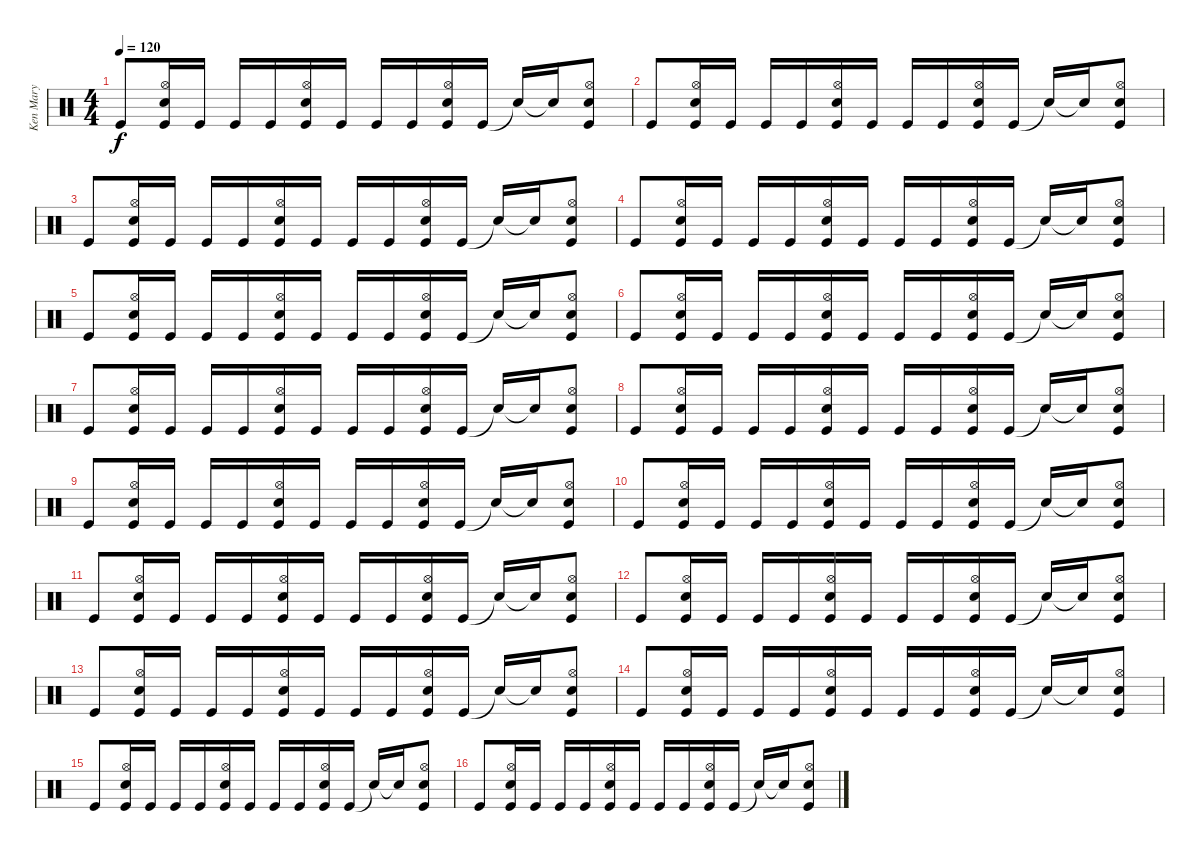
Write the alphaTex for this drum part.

\track ("Ken Mary" "Ken Mary") {instrument percussion}
\staff {score}
\articulation defaults
\ts (4 4)
\tempo 120
\clef neutral
\ks c "Kick (hit)".8{dy f}
("Hi-Hat (open)" "Snare (hit) 2" "Kick (hit)").16 "Kick (hit)".16 "Kick (hit)".16 "Kick (hit)".16 ("Hi-Hat (open)" "Snare (hit) 2" "Kick (hit)").16 "Kick (hit)".16 "Kick (hit)".16 "Kick (hit)".16 ("Hi-Hat (open)" "Snare (hit) 2" "Kick (hit)").16 "Kick (hit)".16 "Snare (hit)"{t}.16 "Snare (hit)"{t}.16 ("Snare (hit) 2" "Hi-Hat (open)" "Kick (hit)").8 |
"Kick (hit)".8 ("Hi-Hat (open)" "Snare (hit) 2" "Kick (hit)").16 "Kick (hit)".16 "Kick (hit)".16 "Kick (hit)".16 ("Hi-Hat (open)" "Snare (hit) 2" "Kick (hit)").16 "Kick (hit)".16 "Kick (hit)".16 "Kick (hit)".16 ("Hi-Hat (open)" "Snare (hit) 2" "Kick (hit)").16 "Kick (hit)".16 "Snare (hit)"{t}.16 "Snare (hit)"{t}.16 ("Snare (hit) 2" "Hi-Hat (open)" "Kick (hit)").8 |
"Kick (hit)".8 ("Hi-Hat (open)" "Snare (hit) 2" "Kick (hit)").16 "Kick (hit)".16 "Kick (hit)".16 "Kick (hit)".16 ("Hi-Hat (open)" "Snare (hit) 2" "Kick (hit)").16 "Kick (hit)".16 "Kick (hit)".16 "Kick (hit)".16 ("Hi-Hat (open)" "Snare (hit) 2" "Kick (hit)").16 "Kick (hit)".16 "Snare (hit)"{t}.16 "Snare (hit)"{t}.16 ("Snare (hit) 2" "Hi-Hat (open)" "Kick (hit)").8 |
"Kick (hit)".8 ("Hi-Hat (open)" "Snare (hit) 2" "Kick (hit)").16 "Kick (hit)".16 "Kick (hit)".16 "Kick (hit)".16 ("Hi-Hat (open)" "Snare (hit) 2" "Kick (hit)").16 "Kick (hit)".16 "Kick (hit)".16 "Kick (hit)".16 ("Hi-Hat (open)" "Snare (hit) 2" "Kick (hit)").16 "Kick (hit)".16 "Snare (hit)"{t}.16 "Snare (hit)"{t}.16 ("Snare (hit) 2" "Hi-Hat (open)" "Kick (hit)").8 |
"Kick (hit)".8 ("Hi-Hat (open)" "Snare (hit) 2" "Kick (hit)").16 "Kick (hit)".16 "Kick (hit)".16 "Kick (hit)".16 ("Hi-Hat (open)" "Snare (hit) 2" "Kick (hit)").16 "Kick (hit)".16 "Kick (hit)".16 "Kick (hit)".16 ("Hi-Hat (open)" "Snare (hit) 2" "Kick (hit)").16 "Kick (hit)".16 "Snare (hit)"{t}.16 "Snare (hit)"{t}.16 ("Snare (hit) 2" "Hi-Hat (open)" "Kick (hit)").8 |
"Kick (hit)".8 ("Hi-Hat (open)" "Snare (hit) 2" "Kick (hit)").16 "Kick (hit)".16 "Kick (hit)".16 "Kick (hit)".16 ("Hi-Hat (open)" "Snare (hit) 2" "Kick (hit)").16 "Kick (hit)".16 "Kick (hit)".16 "Kick (hit)".16 ("Hi-Hat (open)" "Snare (hit) 2" "Kick (hit)").16 "Kick (hit)".16 "Snare (hit)"{t}.16 "Snare (hit)"{t}.16 ("Snare (hit) 2" "Hi-Hat (open)" "Kick (hit)").8 |
"Kick (hit)".8 ("Hi-Hat (open)" "Snare (hit) 2" "Kick (hit)").16 "Kick (hit)".16 "Kick (hit)".16 "Kick (hit)".16 ("Hi-Hat (open)" "Snare (hit) 2" "Kick (hit)").16 "Kick (hit)".16 "Kick (hit)".16 "Kick (hit)".16 ("Hi-Hat (open)" "Snare (hit) 2" "Kick (hit)").16 "Kick (hit)".16 "Snare (hit)"{t}.16 "Snare (hit)"{t}.16 ("Snare (hit) 2" "Hi-Hat (open)" "Kick (hit)").8 |
"Kick (hit)".8 ("Hi-Hat (open)" "Snare (hit) 2" "Kick (hit)").16 "Kick (hit)".16 "Kick (hit)".16 "Kick (hit)".16 ("Hi-Hat (open)" "Snare (hit) 2" "Kick (hit)").16 "Kick (hit)".16 "Kick (hit)".16 "Kick (hit)".16 ("Hi-Hat (open)" "Snare (hit) 2" "Kick (hit)").16 "Kick (hit)".16 "Snare (hit)"{t}.16 "Snare (hit)"{t}.16 ("Snare (hit) 2" "Hi-Hat (open)" "Kick (hit)").8 |
"Kick (hit)".8 ("Hi-Hat (open)" "Snare (hit) 2" "Kick (hit)").16 "Kick (hit)".16 "Kick (hit)".16 "Kick (hit)".16 ("Hi-Hat (open)" "Snare (hit) 2" "Kick (hit)").16 "Kick (hit)".16 "Kick (hit)".16 "Kick (hit)".16 ("Hi-Hat (open)" "Snare (hit) 2" "Kick (hit)").16 "Kick (hit)".16 "Snare (hit)"{t}.16 "Snare (hit)"{t}.16 ("Snare (hit) 2" "Hi-Hat (open)" "Kick (hit)").8 |
"Kick (hit)".8 ("Hi-Hat (open)" "Snare (hit) 2" "Kick (hit)").16 "Kick (hit)".16 "Kick (hit)".16 "Kick (hit)".16 ("Hi-Hat (open)" "Snare (hit) 2" "Kick (hit)").16 "Kick (hit)".16 "Kick (hit)".16 "Kick (hit)".16 ("Hi-Hat (open)" "Snare (hit) 2" "Kick (hit)").16 "Kick (hit)".16 "Snare (hit)"{t}.16 "Snare (hit)"{t}.16 ("Snare (hit) 2" "Hi-Hat (open)" "Kick (hit)").8 |
"Kick (hit)".8 ("Hi-Hat (open)" "Snare (hit) 2" "Kick (hit)").16 "Kick (hit)".16 "Kick (hit)".16 "Kick (hit)".16 ("Hi-Hat (open)" "Snare (hit) 2" "Kick (hit)").16 "Kick (hit)".16 "Kick (hit)".16 "Kick (hit)".16 ("Hi-Hat (open)" "Snare (hit) 2" "Kick (hit)").16 "Kick (hit)".16 "Snare (hit)"{t}.16 "Snare (hit)"{t}.16 ("Snare (hit) 2" "Hi-Hat (open)" "Kick (hit)").8 |
"Kick (hit)".8 ("Hi-Hat (open)" "Snare (hit) 2" "Kick (hit)").16 "Kick (hit)".16 "Kick (hit)".16 "Kick (hit)".16 ("Hi-Hat (open)" "Snare (hit) 2" "Kick (hit)").16 "Kick (hit)".16 "Kick (hit)".16 "Kick (hit)".16 ("Hi-Hat (open)" "Snare (hit) 2" "Kick (hit)").16 "Kick (hit)".16 "Snare (hit)"{t}.16 "Snare (hit)"{t}.16 ("Snare (hit) 2" "Hi-Hat (open)" "Kick (hit)").8 |
"Kick (hit)".8 ("Hi-Hat (open)" "Snare (hit) 2" "Kick (hit)").16 "Kick (hit)".16 "Kick (hit)".16 "Kick (hit)".16 ("Hi-Hat (open)" "Snare (hit) 2" "Kick (hit)").16 "Kick (hit)".16 "Kick (hit)".16 "Kick (hit)".16 ("Hi-Hat (open)" "Snare (hit) 2" "Kick (hit)").16 "Kick (hit)".16 "Snare (hit)"{t}.16 "Snare (hit)"{t}.16 ("Snare (hit) 2" "Hi-Hat (open)" "Kick (hit)").8 |
"Kick (hit)".8 ("Hi-Hat (open)" "Snare (hit) 2" "Kick (hit)").16 "Kick (hit)".16 "Kick (hit)".16 "Kick (hit)".16 ("Hi-Hat (open)" "Snare (hit) 2" "Kick (hit)").16 "Kick (hit)".16 "Kick (hit)".16 "Kick (hit)".16 ("Hi-Hat (open)" "Snare (hit) 2" "Kick (hit)").16 "Kick (hit)".16 "Snare (hit)"{t}.16 "Snare (hit)"{t}.16 ("Snare (hit) 2" "Hi-Hat (open)" "Kick (hit)").8 |
"Kick (hit)".8 ("Hi-Hat (open)" "Snare (hit) 2" "Kick (hit)").16 "Kick (hit)".16 "Kick (hit)".16 "Kick (hit)".16 ("Hi-Hat (open)" "Snare (hit) 2" "Kick (hit)").16 "Kick (hit)".16 "Kick (hit)".16 "Kick (hit)".16 ("Hi-Hat (open)" "Snare (hit) 2" "Kick (hit)").16 "Kick (hit)".16 "Snare (hit)"{t}.16 "Snare (hit)"{t}.16 ("Snare (hit) 2" "Hi-Hat (open)" "Kick (hit)").8 |
"Kick (hit)".8 ("Hi-Hat (open)" "Snare (hit) 2" "Kick (hit)").16 "Kick (hit)".16 "Kick (hit)".16 "Kick (hit)".16 ("Hi-Hat (open)" "Snare (hit) 2" "Kick (hit)").16 "Kick (hit)".16 "Kick (hit)".16 "Kick (hit)".16 ("Hi-Hat (open)" "Snare (hit) 2" "Kick (hit)").16 "Kick (hit)".16 "Snare (hit)"{t}.16 "Snare (hit)"{t}.16 ("Snare (hit) 2" "Hi-Hat (open)" "Kick (hit)").8
